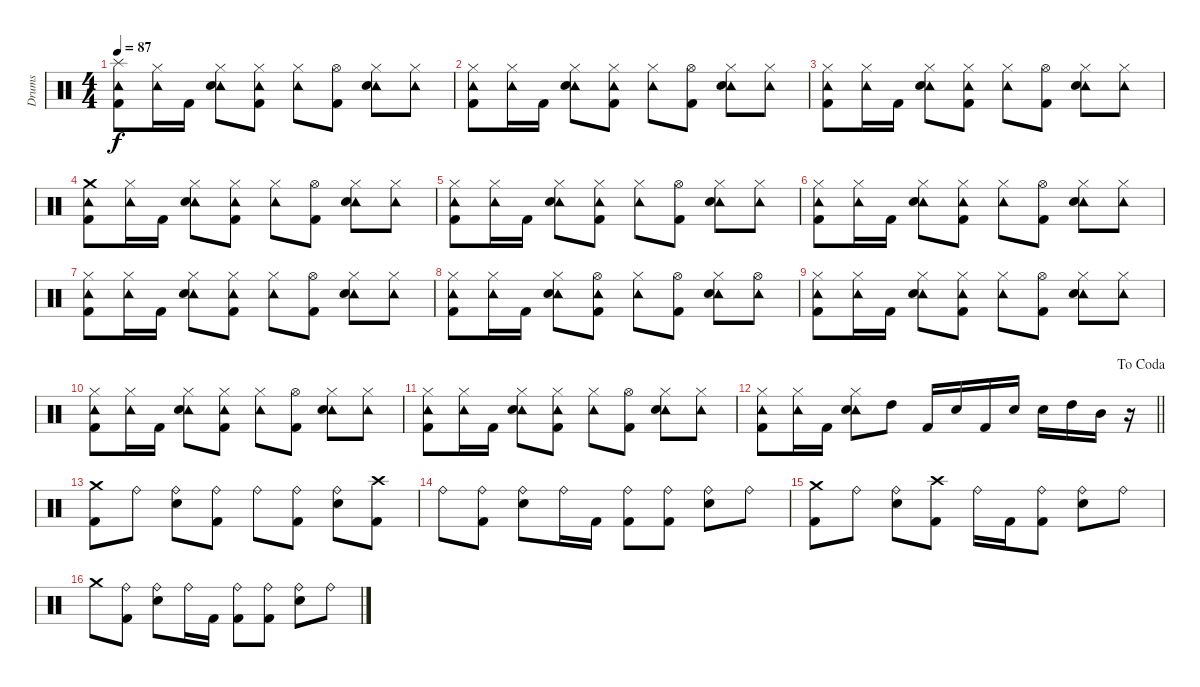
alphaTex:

\track ("Drums" "Drums") {instrument percussion}
\staff {score}
\articulation defaults
\ts (4 4)
\tempo 87
\clef neutral
\ks c
("Tambourine (hit)" "Splash (hit)" "Kick (hit) 2").8{dy f} ("Tambourine (hit)" "Hi-Hat (closed)").16 "Kick (hit) 2".16 ("Tambourine (hit)" "Hi-Hat (closed)" "Snare (hit) 2").8 ("Tambourine (hit)" "Hi-Hat (closed)" "Kick (hit) 2").8 ("Tambourine (hit)" "Hi-Hat (closed)").8 ("Hi-Hat (open)" "Kick (hit) 2").8 ("Tambourine (hit)" "Hi-Hat (closed)" "Snare (hit) 2").8 ("Tambourine (hit)" "Hi-Hat (closed)").8 |
("Tambourine (hit)" "Hi-Hat (closed)" "Kick (hit) 2").8 ("Tambourine (hit)" "Hi-Hat (closed)").16 "Kick (hit) 2".16 ("Tambourine (hit)" "Hi-Hat (closed)" "Snare (hit) 2").8 ("Tambourine (hit)" "Hi-Hat (closed)" "Kick (hit) 2").8 ("Tambourine (hit)" "Hi-Hat (closed)").8 ("Hi-Hat (open)" "Kick (hit) 2").8 ("Tambourine (hit)" "Hi-Hat (closed)" "Snare (hit) 2").8 ("Tambourine (hit)" "Hi-Hat (closed)").8 |
("Tambourine (hit)" "Hi-Hat (closed)" "Kick (hit) 2").8 ("Tambourine (hit)" "Hi-Hat (closed)").16 "Kick (hit) 2".16 ("Tambourine (hit)" "Hi-Hat (closed)" "Snare (hit) 2").8 ("Tambourine (hit)" "Hi-Hat (closed)" "Kick (hit) 2").8 ("Tambourine (hit)" "Hi-Hat (closed)").8 ("Hi-Hat (open)" "Kick (hit) 2").8 ("Tambourine (hit)" "Hi-Hat (closed)" "Snare (hit) 2").8 ("Tambourine (hit)" "Hi-Hat (closed)").8 |
("Tambourine (hit)" "Crash medium (hit)" "Kick (hit) 2").8 ("Tambourine (hit)" "Hi-Hat (closed)").16 "Kick (hit) 2".16 ("Tambourine (hit)" "Hi-Hat (closed)" "Snare (hit) 2").8 ("Tambourine (hit)" "Hi-Hat (closed)" "Kick (hit) 2").8 ("Tambourine (hit)" "Hi-Hat (closed)").8 ("Hi-Hat (open)" "Kick (hit) 2").8 ("Tambourine (hit)" "Hi-Hat (closed)" "Snare (hit) 2").8 ("Tambourine (hit)" "Hi-Hat (closed)").8 |
("Tambourine (hit)" "Hi-Hat (closed)" "Kick (hit) 2").8 ("Tambourine (hit)" "Hi-Hat (closed)").16 "Kick (hit) 2".16 ("Tambourine (hit)" "Hi-Hat (closed)" "Snare (hit) 2").8 ("Tambourine (hit)" "Hi-Hat (closed)" "Kick (hit) 2").8 ("Tambourine (hit)" "Hi-Hat (closed)").8 ("Hi-Hat (open)" "Kick (hit) 2").8 ("Tambourine (hit)" "Hi-Hat (closed)" "Snare (hit) 2").8 ("Tambourine (hit)" "Hi-Hat (closed)").8 |
("Tambourine (hit)" "Hi-Hat (closed)" "Kick (hit) 2").8 ("Tambourine (hit)" "Hi-Hat (closed)").16 "Kick (hit) 2".16 ("Tambourine (hit)" "Hi-Hat (closed)" "Snare (hit) 2").8 ("Tambourine (hit)" "Hi-Hat (closed)" "Kick (hit) 2").8 ("Tambourine (hit)" "Hi-Hat (closed)").8 ("Hi-Hat (open)" "Kick (hit) 2").8 ("Tambourine (hit)" "Hi-Hat (closed)" "Snare (hit) 2").8 ("Tambourine (hit)" "Hi-Hat (closed)").8 |
("Tambourine (hit)" "Hi-Hat (closed)" "Kick (hit) 2").8 ("Tambourine (hit)" "Hi-Hat (closed)").16 "Kick (hit) 2".16 ("Tambourine (hit)" "Hi-Hat (closed)" "Snare (hit) 2").8 ("Tambourine (hit)" "Hi-Hat (closed)" "Kick (hit) 2").8 ("Tambourine (hit)" "Hi-Hat (closed)").8 ("Hi-Hat (open)" "Kick (hit) 2").8 ("Tambourine (hit)" "Hi-Hat (closed)" "Snare (hit) 2").8 ("Tambourine (hit)" "Hi-Hat (closed)").8 |
("Tambourine (hit)" "Hi-Hat (closed)" "Kick (hit) 2").8 ("Tambourine (hit)" "Hi-Hat (closed)").16 "Kick (hit) 2".16 ("Tambourine (hit)" "Hi-Hat (closed)" "Snare (hit) 2").8 ("Tambourine (hit)" "Hi-Hat (open)" "Kick (hit) 2").8 ("Tambourine (hit)" "Hi-Hat (closed)").8 ("Hi-Hat (open)" "Kick (hit) 2").8 ("Tambourine (hit)" "Hi-Hat (closed)" "Snare (hit) 2").8 ("Tambourine (hit)" "Hi-Hat (open)").8 |
("Tambourine (hit)" "Hi-Hat (closed)" "Kick (hit) 2").8 ("Tambourine (hit)" "Hi-Hat (closed)").16 "Kick (hit) 2".16 ("Tambourine (hit)" "Hi-Hat (closed)" "Snare (hit) 2").8 ("Tambourine (hit)" "Hi-Hat (closed)" "Kick (hit) 2").8 ("Tambourine (hit)" "Hi-Hat (closed)").8 ("Hi-Hat (open)" "Kick (hit) 2").8 ("Tambourine (hit)" "Hi-Hat (closed)" "Snare (hit) 2").8 ("Tambourine (hit)" "Hi-Hat (closed)").8 |
("Tambourine (hit)" "Hi-Hat (closed)" "Kick (hit) 2").8 ("Tambourine (hit)" "Hi-Hat (closed)").16 "Kick (hit) 2".16 ("Tambourine (hit)" "Hi-Hat (closed)" "Snare (hit) 2").8 ("Tambourine (hit)" "Hi-Hat (closed)" "Kick (hit) 2").8 ("Tambourine (hit)" "Hi-Hat (closed)").8 ("Hi-Hat (open)" "Kick (hit) 2").8 ("Tambourine (hit)" "Hi-Hat (closed)" "Snare (hit) 2").8 ("Tambourine (hit)" "Hi-Hat (closed)").8 |
("Tambourine (hit)" "Hi-Hat (closed)" "Kick (hit) 2").8 ("Tambourine (hit)" "Hi-Hat (closed)").16 "Kick (hit) 2".16 ("Tambourine (hit)" "Hi-Hat (closed)" "Snare (hit) 2").8 ("Tambourine (hit)" "Hi-Hat (closed)" "Kick (hit) 2").8 ("Tambourine (hit)" "Hi-Hat (closed)").8 ("Hi-Hat (open)" "Kick (hit) 2").8 ("Tambourine (hit)" "Hi-Hat (closed)" "Snare (hit) 2").8 ("Tambourine (hit)" "Hi-Hat (closed)").8 |
\jump dacoda
\barLineRight lightlight
("Tambourine (hit)" "Hi-Hat (closed)" "Kick (hit) 2").8 ("Tambourine (hit)" "Hi-Hat (closed)").16 "Kick (hit) 2".16 ("Tambourine (hit)" "Hi-Hat (closed)" "Snare (hit) 2").8 "High Tom (hit)".8 "Kick (hit) 2".16 "Snare (hit) 2".16 "Kick (hit) 2".16 "Snare (hit) 2".16 "Snare (hit) 2".16 "High Tom (hit)".16 "Mid Tom (hit)".16 r.16 |
("Crash medium (hit)" "Kick (hit) 2").8 "Ride (bell)".8 ("Ride (bell)" "Snare (hit) 2").8 ("Ride (bell)" "Kick (hit) 2").8 "Ride (bell)".8 ("Ride (bell)" "Kick (hit) 2").8 ("Ride (bell)" "Snare (hit) 2").8 ("Crash high (hit)" "Kick (hit) 2").8 |
"Ride (bell)".8 ("Ride (bell)" "Kick (hit) 2").8 ("Ride (bell)" "Snare (hit) 2").8 "Ride (bell)".16 "Kick (hit) 2".16 ("Ride (bell)" "Kick (hit) 2").8 ("Ride (bell)" "Kick (hit) 2").8 ("Ride (bell)" "Snare (hit) 2").8 "Ride (bell)".8 |
("Crash medium (hit)" "Kick (hit) 2").8 "Ride (bell)".8 ("Ride (bell)" "Snare (hit) 2").8 ("Crash high (hit)" "Kick (hit) 2").8 "Ride (bell)".16 "Kick (hit) 2".16 ("Ride (bell)" "Kick (hit) 2").8 ("Ride (bell)" "Snare (hit) 2").8 "Ride (bell)".8 |
"Crash medium (hit)".8 ("Ride (bell)" "Kick (hit) 2").8 ("Ride (bell)" "Snare (hit) 2").8 "Ride (bell)".16 "Kick (hit) 2".16 ("Ride (bell)" "Kick (hit) 2").8 ("Ride (bell)" "Kick (hit) 2").8 ("Ride (bell)" "Snare (hit) 2").8 "Ride (bell)".8
